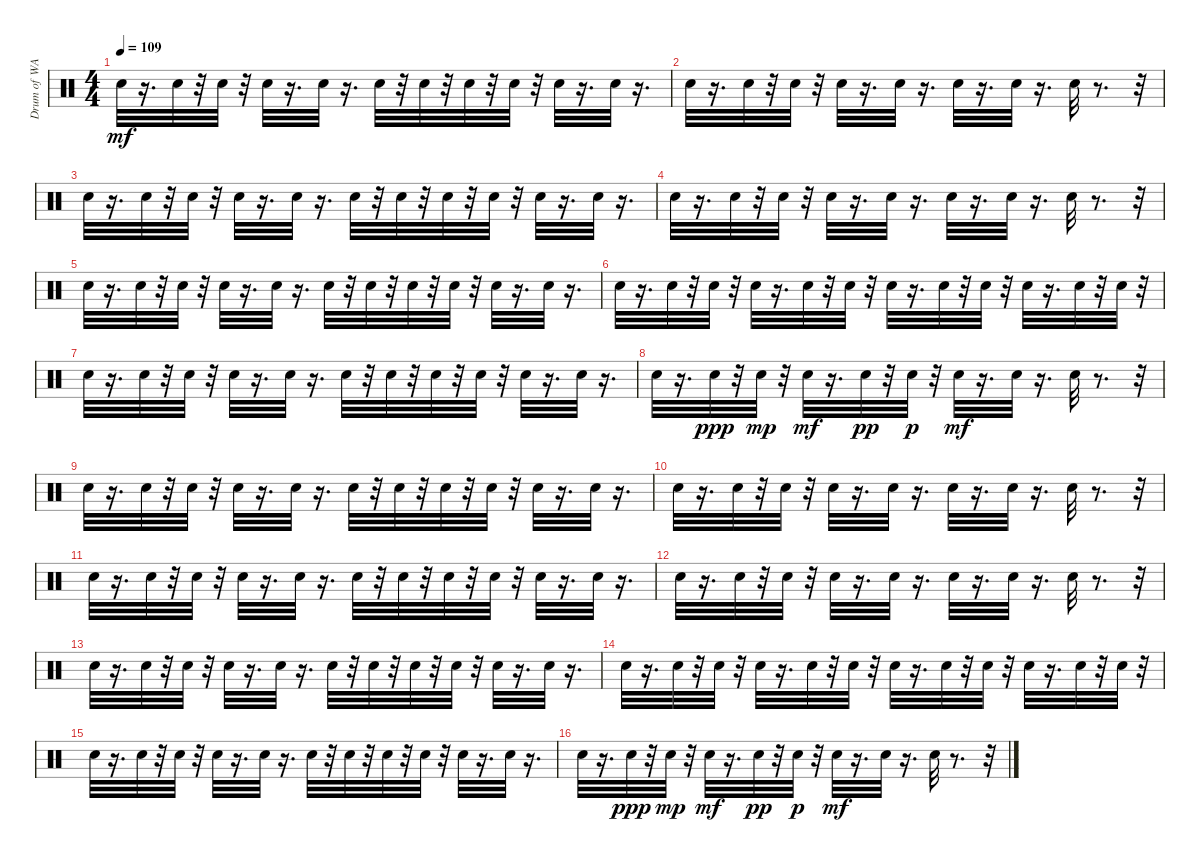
\track ("Drum of WAR" "Drum of WA") {instrument percussion}
\staff {score}
\articulation defaults
\ts (4 4)
\tempo 109
\clef neutral
\ks c "Snare (hit) 2".32{dy mf}
r.16{d} "Snare (hit) 2".32 r.32 "Snare (hit) 2".32 r.32 "Snare (hit) 2".32 r.16{d} "Snare (hit) 2".32 r.16{d} "Snare (hit) 2".32 r.32 "Snare (hit) 2".32 r.32 "Snare (hit) 2".32 r.32 "Snare (hit) 2".32 r.32 "Snare (hit) 2".32 r.16{d} "Snare (hit) 2".32 r.16{d} |
"Snare (hit) 2".32 r.16{d} "Snare (hit) 2".32 r.32 "Snare (hit) 2".32 r.32 "Snare (hit) 2".32 r.16{d} "Snare (hit) 2".32 r.16{d} "Snare (hit) 2".32 r.16{d} "Snare (hit) 2".32 r.16{d} "Snare (hit) 2".32 r.8{d} r.32 |
"Snare (hit) 2".32 r.16{d} "Snare (hit) 2".32 r.32 "Snare (hit) 2".32 r.32 "Snare (hit) 2".32 r.16{d} "Snare (hit) 2".32 r.16{d} "Snare (hit) 2".32 r.32 "Snare (hit) 2".32 r.32 "Snare (hit) 2".32 r.32 "Snare (hit) 2".32 r.32 "Snare (hit) 2".32 r.16{d} "Snare (hit) 2".32 r.16{d} |
"Snare (hit) 2".32 r.16{d} "Snare (hit) 2".32 r.32 "Snare (hit) 2".32 r.32 "Snare (hit) 2".32 r.16{d} "Snare (hit) 2".32 r.16{d} "Snare (hit) 2".32 r.16{d} "Snare (hit) 2".32 r.16{d} "Snare (hit) 2".32 r.8{d} r.32 |
"Snare (hit) 2".32 r.16{d} "Snare (hit) 2".32 r.32 "Snare (hit) 2".32 r.32 "Snare (hit) 2".32 r.16{d} "Snare (hit) 2".32 r.16{d} "Snare (hit) 2".32 r.32 "Snare (hit) 2".32 r.32 "Snare (hit) 2".32 r.32 "Snare (hit) 2".32 r.32 "Snare (hit) 2".32 r.16{d} "Snare (hit) 2".32 r.16{d} |
"Snare (hit) 2".32 r.16{d} "Snare (hit) 2".32 r.32 "Snare (hit) 2".32 r.32 "Snare (hit) 2".32 r.16{d} "Snare (hit) 2".32 r.32 "Snare (hit) 2".32 r.32 "Snare (hit) 2".32 r.16{d} "Snare (hit) 2".32 r.32 "Snare (hit) 2".32 r.32 "Snare (hit) 2".32 r.16{d} "Snare (hit) 2".32 r.32 "Snare (hit) 2".32 r.32 |
"Snare (hit) 2".32 r.16{d} "Snare (hit) 2".32 r.32 "Snare (hit) 2".32 r.32 "Snare (hit) 2".32 r.16{d} "Snare (hit) 2".32 r.16{d} "Snare (hit) 2".32 r.32 "Snare (hit) 2".32 r.32 "Snare (hit) 2".32 r.32 "Snare (hit) 2".32 r.32 "Snare (hit) 2".32 r.16{d} "Snare (hit) 2".32 r.16{d} |
"Snare (hit) 2".32 r.16{d} "Snare (hit) 2".32{dy ppp} r.32 "Snare (hit) 2".32{dy mp} r.32 "Snare (hit) 2".32{dy mf} r.16{d} "Snare (hit) 2".32{dy pp} r.32 "Snare (hit) 2".32{dy p} r.32 "Snare (hit) 2".32{dy mf} r.16{d} "Snare (hit) 2".32 r.16{d} "Snare (hit) 2".32 r.8{d} r.32 |
"Snare (hit) 2".32 r.16{d} "Snare (hit) 2".32 r.32 "Snare (hit) 2".32 r.32 "Snare (hit) 2".32 r.16{d} "Snare (hit) 2".32 r.16{d} "Snare (hit) 2".32 r.32 "Snare (hit) 2".32 r.32 "Snare (hit) 2".32 r.32 "Snare (hit) 2".32 r.32 "Snare (hit) 2".32 r.16{d} "Snare (hit) 2".32 r.16{d} |
"Snare (hit) 2".32 r.16{d} "Snare (hit) 2".32 r.32 "Snare (hit) 2".32 r.32 "Snare (hit) 2".32 r.16{d} "Snare (hit) 2".32 r.16{d} "Snare (hit) 2".32 r.16{d} "Snare (hit) 2".32 r.16{d} "Snare (hit) 2".32 r.8{d} r.32 |
"Snare (hit) 2".32 r.16{d} "Snare (hit) 2".32 r.32 "Snare (hit) 2".32 r.32 "Snare (hit) 2".32 r.16{d} "Snare (hit) 2".32 r.16{d} "Snare (hit) 2".32 r.32 "Snare (hit) 2".32 r.32 "Snare (hit) 2".32 r.32 "Snare (hit) 2".32 r.32 "Snare (hit) 2".32 r.16{d} "Snare (hit) 2".32 r.16{d} |
"Snare (hit) 2".32 r.16{d} "Snare (hit) 2".32 r.32 "Snare (hit) 2".32 r.32 "Snare (hit) 2".32 r.16{d} "Snare (hit) 2".32 r.16{d} "Snare (hit) 2".32 r.16{d} "Snare (hit) 2".32 r.16{d} "Snare (hit) 2".32 r.8{d} r.32 |
"Snare (hit) 2".32 r.16{d} "Snare (hit) 2".32 r.32 "Snare (hit) 2".32 r.32 "Snare (hit) 2".32 r.16{d} "Snare (hit) 2".32 r.16{d} "Snare (hit) 2".32 r.32 "Snare (hit) 2".32 r.32 "Snare (hit) 2".32 r.32 "Snare (hit) 2".32 r.32 "Snare (hit) 2".32 r.16{d} "Snare (hit) 2".32 r.16{d} |
"Snare (hit) 2".32 r.16{d} "Snare (hit) 2".32 r.32 "Snare (hit) 2".32 r.32 "Snare (hit) 2".32 r.16{d} "Snare (hit) 2".32 r.32 "Snare (hit) 2".32 r.32 "Snare (hit) 2".32 r.16{d} "Snare (hit) 2".32 r.32 "Snare (hit) 2".32 r.32 "Snare (hit) 2".32 r.16{d} "Snare (hit) 2".32 r.32 "Snare (hit) 2".32 r.32 |
"Snare (hit) 2".32 r.16{d} "Snare (hit) 2".32 r.32 "Snare (hit) 2".32 r.32 "Snare (hit) 2".32 r.16{d} "Snare (hit) 2".32 r.16{d} "Snare (hit) 2".32 r.32 "Snare (hit) 2".32 r.32 "Snare (hit) 2".32 r.32 "Snare (hit) 2".32 r.32 "Snare (hit) 2".32 r.16{d} "Snare (hit) 2".32 r.16{d} |
"Snare (hit) 2".32 r.16{d} "Snare (hit) 2".32{dy ppp} r.32 "Snare (hit) 2".32{dy mp} r.32 "Snare (hit) 2".32{dy mf} r.16{d} "Snare (hit) 2".32{dy pp} r.32 "Snare (hit) 2".32{dy p} r.32 "Snare (hit) 2".32{dy mf} r.16{d} "Snare (hit) 2".32 r.16{d} "Snare (hit) 2".32 r.8{d} r.32
